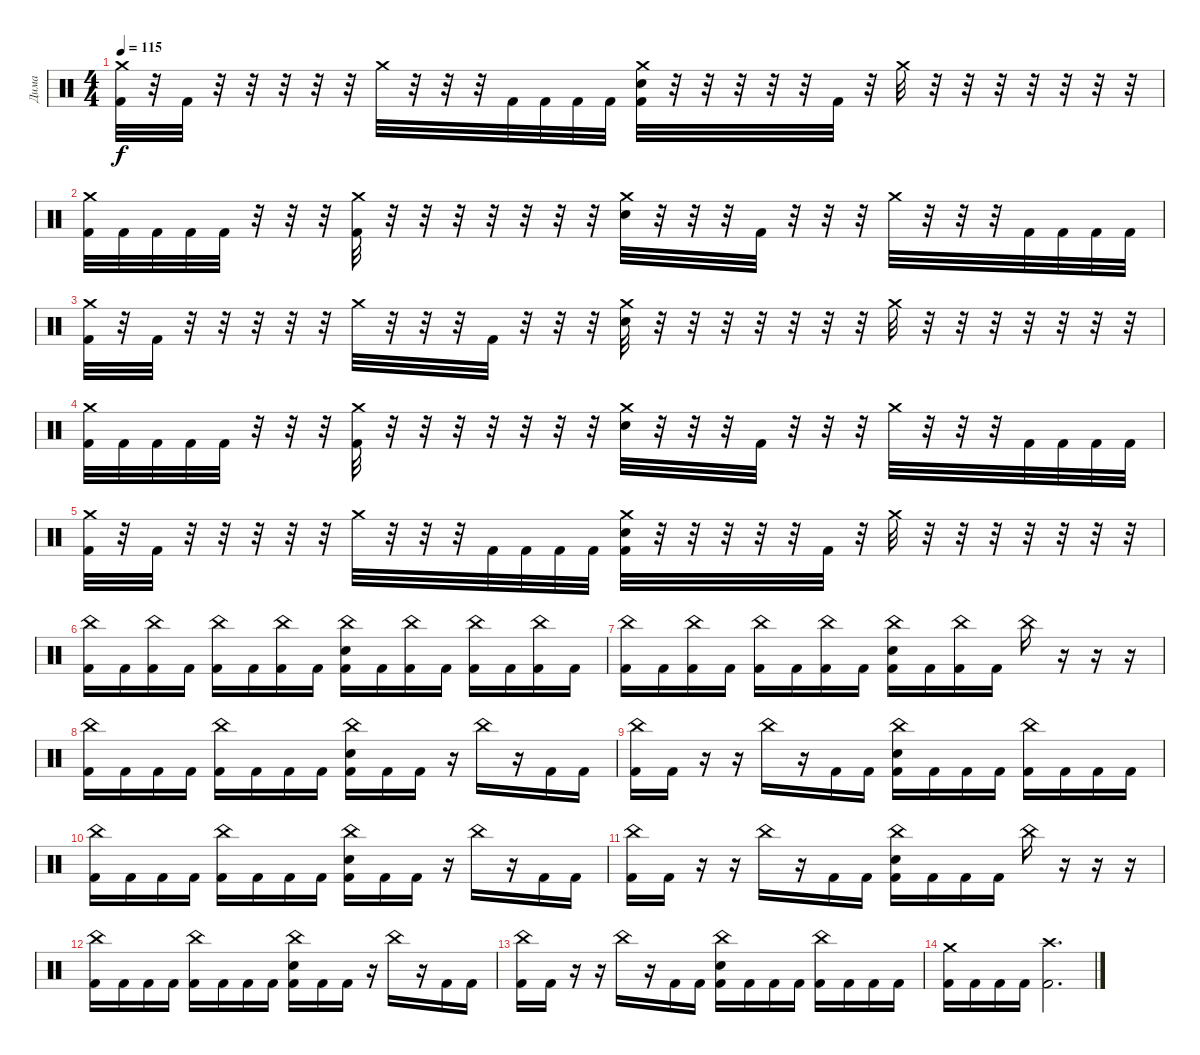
\track ("Дима " "Дима ") {instrument percussion}
\staff {score}
\articulation defaults
\ts (4 4)
\tempo 115
\clef neutral
\ks c
("Crash medium (hit)" "Kick (hit) 2").32{dy f} r.32 "Kick (hit) 2".32 r.32 r.32 r.32 r.32 r.32 "Crash medium (hit)".32 r.32 r.32 r.32 "Kick (hit) 2".32 "Kick (hit) 2".32 "Kick (hit) 2".32 "Kick (hit) 2".32 ("Crash medium (hit)" "Electric Snare (hit)" "Kick (hit) 2").32 r.32 r.32 r.32 r.32 r.32 "Kick (hit) 2".32 r.32 "Crash medium (hit)".32 r.32 r.32 r.32 r.32 r.32 r.32 r.32 |
("Crash medium (hit)" "Kick (hit) 2").32 "Kick (hit) 2".32 "Kick (hit) 2".32 "Kick (hit) 2".32 "Kick (hit) 2".32 r.32 r.32 r.32 ("Crash medium (hit)" "Kick (hit) 2").32 r.32 r.32 r.32 r.32 r.32 r.32 r.32 ("Crash medium (hit)" "Electric Snare (hit)").32 r.32 r.32 r.32 "Kick (hit) 2".32 r.32 r.32 r.32 "Crash medium (hit)".32 r.32 r.32 r.32 "Kick (hit) 2".32 "Kick (hit) 2".32 "Kick (hit) 2".32 "Kick (hit) 2".32 |
("Crash medium (hit)" "Kick (hit) 2").32 r.32 "Kick (hit) 2".32 r.32 r.32 r.32 r.32 r.32 "Crash medium (hit)".32 r.32 r.32 r.32 "Kick (hit) 2".32 r.32 r.32 r.32 ("Crash medium (hit)" "Electric Snare (hit)").32 r.32 r.32 r.32 r.32 r.32 r.32 r.32 "Crash medium (hit)".32 r.32 r.32 r.32 r.32 r.32 r.32 r.32 |
("Crash medium (hit)" "Kick (hit) 2").32 "Kick (hit) 2".32 "Kick (hit) 2".32 "Kick (hit) 2".32 "Kick (hit) 2".32 r.32 r.32 r.32 ("Crash medium (hit)" "Kick (hit) 2").32 r.32 r.32 r.32 r.32 r.32 r.32 r.32 ("Crash medium (hit)" "Electric Snare (hit)").32 r.32 r.32 r.32 "Kick (hit) 2".32 r.32 r.32 r.32 "Crash medium (hit)".32 r.32 r.32 r.32 "Kick (hit) 2".32 "Kick (hit) 2".32 "Kick (hit) 2".32 "Kick (hit) 2".32 |
("Crash medium (hit)" "Kick (hit) 2").32 r.32 "Kick (hit) 2".32 r.32 r.32 r.32 r.32 r.32 "Crash medium (hit)".32 r.32 r.32 r.32 "Kick (hit) 2".32 "Kick (hit) 2".32 "Kick (hit) 2".32 "Kick (hit) 2".32 ("Crash medium (hit)" "Electric Snare (hit)" "Kick (hit) 2").32 r.32 r.32 r.32 r.32 r.32 "Kick (hit) 2".32 r.32 "Crash medium (hit)".32 r.32 r.32 r.32 r.32 r.32 r.32 r.32 |
("China (hit)" "Kick (hit) 2").16 "Kick (hit) 2".16 ("China (hit)" "Kick (hit) 2").16 "Kick (hit) 2".16 ("China (hit)" "Kick (hit) 2").16 "Kick (hit) 2".16 ("China (hit)" "Kick (hit) 2").16 "Kick (hit) 2".16 ("China (hit)" "Electric Snare (hit)" "Kick (hit) 2").16 "Kick (hit) 2".16 ("China (hit)" "Kick (hit) 2").16 "Kick (hit) 2".16 ("China (hit)" "Kick (hit) 2").16 "Kick (hit) 2".16 ("China (hit)" "Kick (hit) 2").16 "Kick (hit) 2".16 |
("China (hit)" "Kick (hit) 2").16 "Kick (hit) 2".16 ("China (hit)" "Kick (hit) 2").16 "Kick (hit) 2".16 ("China (hit)" "Kick (hit) 2").16 "Kick (hit) 2".16 ("China (hit)" "Kick (hit) 2").16 "Kick (hit) 2".16 ("China (hit)" "Electric Snare (hit)" "Kick (hit) 2").16 "Kick (hit) 2".16 ("China (hit)" "Kick (hit) 2").16 "Kick (hit) 2".16 "China (hit)".16 r.16 r.16 r.16 |
("China (hit)" "Kick (hit) 2").16 "Kick (hit) 2".16 "Kick (hit) 2".16 "Kick (hit) 2".16 ("China (hit)" "Kick (hit) 2").16 "Kick (hit) 2".16 "Kick (hit) 2".16 "Kick (hit) 2".16 ("China (hit)" "Electric Snare (hit)" "Kick (hit) 2").16 "Kick (hit) 2".16 "Kick (hit) 2".16 r.16 "China (hit)".16 r.16 "Kick (hit) 2".16 "Kick (hit) 2".16 |
("China (hit)" "Kick (hit) 2").16 "Kick (hit) 2".16 r.16 r.16 "China (hit)".16 r.16 "Kick (hit) 2".16 "Kick (hit) 2".16 ("China (hit)" "Electric Snare (hit)" "Kick (hit) 2").16 "Kick (hit) 2".16 "Kick (hit) 2".16 "Kick (hit) 2".16 ("China (hit)" "Kick (hit) 2").16 "Kick (hit) 2".16 "Kick (hit) 2".16 "Kick (hit) 2".16 |
("China (hit)" "Kick (hit) 2").16 "Kick (hit) 2".16 "Kick (hit) 2".16 "Kick (hit) 2".16 ("China (hit)" "Kick (hit) 2").16 "Kick (hit) 2".16 "Kick (hit) 2".16 "Kick (hit) 2".16 ("China (hit)" "Electric Snare (hit)" "Kick (hit) 2").16 "Kick (hit) 2".16 "Kick (hit) 2".16 r.16 "China (hit)".16 r.16 "Kick (hit) 2".16 "Kick (hit) 2".16 |
("China (hit)" "Kick (hit) 2").16 "Kick (hit) 2".16 r.16 r.16 "China (hit)".16 r.16 "Kick (hit) 2".16 "Kick (hit) 2".16 ("China (hit)" "Electric Snare (hit)" "Kick (hit) 2").16 "Kick (hit) 2".16 "Kick (hit) 2".16 "Kick (hit) 2".16 "China (hit)".16 r.16 r.16 r.16 |
("China (hit)" "Kick (hit) 2").16 "Kick (hit) 2".16 "Kick (hit) 2".16 "Kick (hit) 2".16 ("China (hit)" "Kick (hit) 2").16 "Kick (hit) 2".16 "Kick (hit) 2".16 "Kick (hit) 2".16 ("China (hit)" "Electric Snare (hit)" "Kick (hit) 2").16 "Kick (hit) 2".16 "Kick (hit) 2".16 r.16 "China (hit)".16 r.16 "Kick (hit) 2".16 "Kick (hit) 2".16 |
("China (hit)" "Kick (hit) 2").16 "Kick (hit) 2".16 r.16 r.16 "China (hit)".16 r.16 "Kick (hit) 2".16 "Kick (hit) 2".16 ("China (hit)" "Electric Snare (hit)" "Kick (hit) 2").16 "Kick (hit) 2".16 "Kick (hit) 2".16 "Kick (hit) 2".16 ("China (hit)" "Kick (hit) 2").16 "Kick (hit) 2".16 "Kick (hit) 2".16 "Kick (hit) 2".16 |
("Crash medium (hit)" "Kick (hit) 2").16 "Kick (hit) 2".16 "Kick (hit) 2".16 "Kick (hit) 2".16 ("Crash high (hit)" "Kick (hit) 2").2{d}
